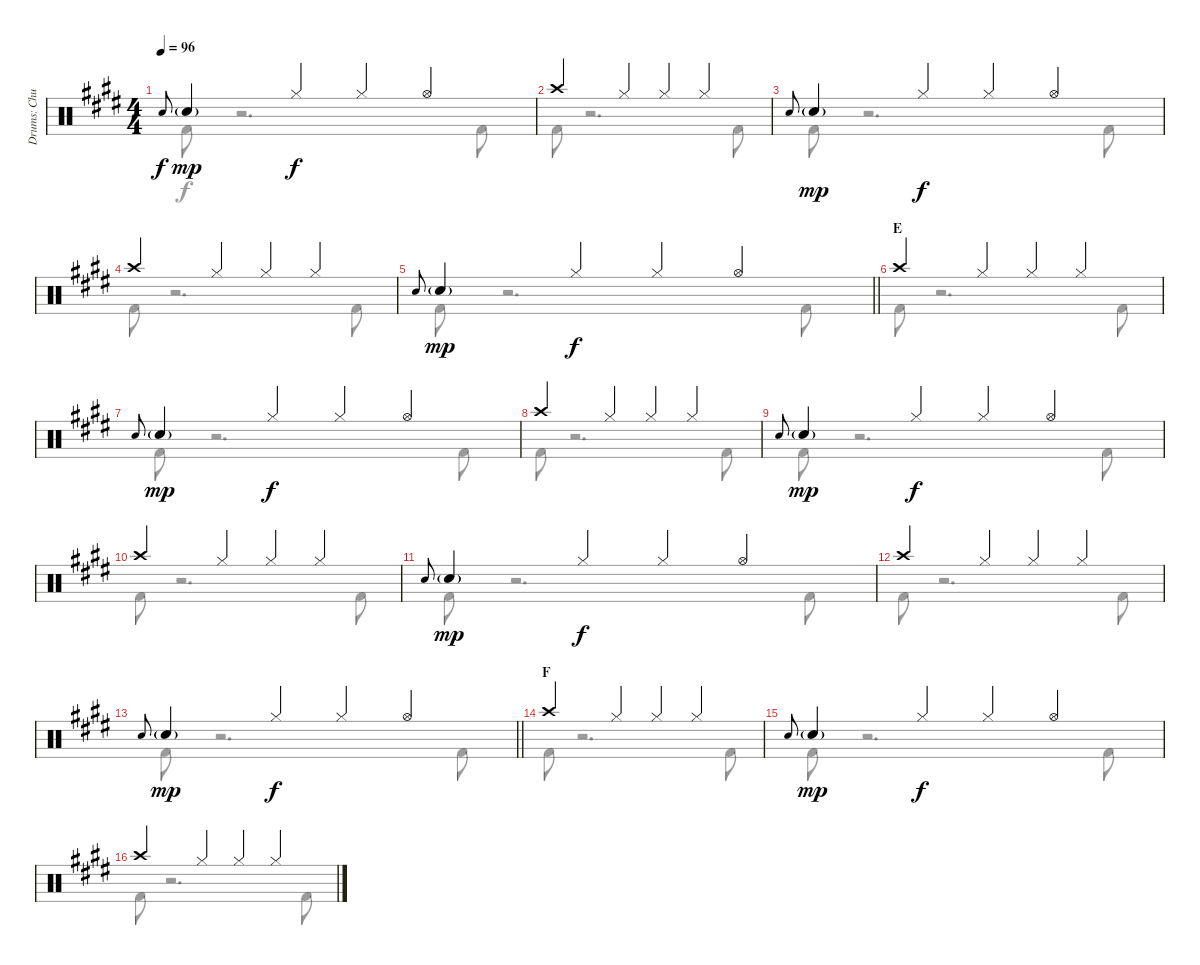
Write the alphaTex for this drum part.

\track ("Drums: Chuck" "Drums: Chu") {instrument percussion}
\staff {score}
\articulation defaults
\voice
\ts (4 4)
\tempo 96
\clef neutral
\ks e "Electric Snare (hit)".8{gr onbeat dy f} "Snare (hit) 2"{g}.4{dy mp} "Hi-Hat (closed)".4{dy f} "Hi-Hat (closed)".4 "Hi-Hat (open)".4
|
"Crash high (hit)".4 "Hi-Hat (closed)".4 "Hi-Hat (closed)".4 "Hi-Hat (closed)".4 |
"Electric Snare (hit)".8{gr onbeat} "Snare (hit) 2"{g}.4{dy mp} "Hi-Hat (closed)".4{dy f} "Hi-Hat (closed)".4 "Hi-Hat (open)".4 |
"Crash high (hit)".4 "Hi-Hat (closed)".4 "Hi-Hat (closed)".4 "Hi-Hat (closed)".4 |
\barLineRight lightlight "Electric Snare (hit)".8{gr onbeat} "Snare (hit) 2"{g}.4{dy mp} "Hi-Hat (closed)".4{dy f} "Hi-Hat (closed)".4 "Hi-Hat (open)".4
|
\section ("" "E")
"Crash high (hit)".4 "Hi-Hat (closed)".4 "Hi-Hat (closed)".4 "Hi-Hat (closed)".4 |
"Electric Snare (hit)".8{gr onbeat} "Snare (hit) 2"{g}.4{dy mp} "Hi-Hat (closed)".4{dy f} "Hi-Hat (closed)".4 "Hi-Hat (open)".4 |
"Crash high (hit)".4 "Hi-Hat (closed)".4 "Hi-Hat (closed)".4 "Hi-Hat (closed)".4 |
"Electric Snare (hit)".8{gr onbeat} "Snare (hit) 2"{g}.4{dy mp} "Hi-Hat (closed)".4{dy f} "Hi-Hat (closed)".4 "Hi-Hat (open)".4 |
"Crash high (hit)".4 "Hi-Hat (closed)".4 "Hi-Hat (closed)".4 "Hi-Hat (closed)".4 |
"Electric Snare (hit)".8{gr onbeat} "Snare (hit) 2"{g}.4{dy mp} "Hi-Hat (closed)".4{dy f} "Hi-Hat (closed)".4 "Hi-Hat (open)".4 |
"Crash high (hit)".4 "Hi-Hat (closed)".4 "Hi-Hat (closed)".4 "Hi-Hat (closed)".4 |
\barLineRight lightlight "Electric Snare (hit)".8{gr onbeat} "Snare (hit) 2"{g}.4{dy mp} "Hi-Hat (closed)".4{dy f} "Hi-Hat (closed)".4 "Hi-Hat (open)".4
|
\section ("" "F")
"Crash high (hit)".4 "Hi-Hat (closed)".4 "Hi-Hat (closed)".4 "Hi-Hat (closed)".4 |
"Electric Snare (hit)".8{gr onbeat} "Snare (hit) 2"{g}.4{dy mp} "Hi-Hat (closed)".4{dy f} "Hi-Hat (closed)".4 "Hi-Hat (open)".4 |
"Crash high (hit)".4 "Hi-Hat (closed)".4 "Hi-Hat (closed)".4 "Hi-Hat (closed)".4
\voice
\clef neutral
\ottava regular
\simile none
\ks e "Kick (hit) 2".8{dy f}
r.2{d} "Kick (hit) 2".8 |
"Kick (hit) 2".8 r.2{d} "Kick (hit) 2".8 |
"Kick (hit) 2".8 r.2{d} "Kick (hit) 2".8 |
"Kick (hit) 2".8 r.2{d} "Kick (hit) 2".8 |
\barLineRight lightlight "Kick (hit) 2".8
r.2{d} "Kick (hit) 2".8 |
"Kick (hit) 2".8 r.2{d} "Kick (hit) 2".8 |
"Kick (hit) 2".8 r.2{d} "Kick (hit) 2".8 |
"Kick (hit) 2".8 r.2{d} "Kick (hit) 2".8 |
"Kick (hit) 2".8 r.2{d} "Kick (hit) 2".8 |
"Kick (hit) 2".8 r.2{d} "Kick (hit) 2".8 |
"Kick (hit) 2".8 r.2{d} "Kick (hit) 2".8 |
"Kick (hit) 2".8 r.2{d} "Kick (hit) 2".8 |
\barLineRight lightlight "Kick (hit) 2".8
r.2{d} "Kick (hit) 2".8 |
"Kick (hit) 2".8 r.2{d} "Kick (hit) 2".8 |
"Kick (hit) 2".8 r.2{d} "Kick (hit) 2".8 |
"Kick (hit) 2".8 r.2{d} "Kick (hit) 2".8
